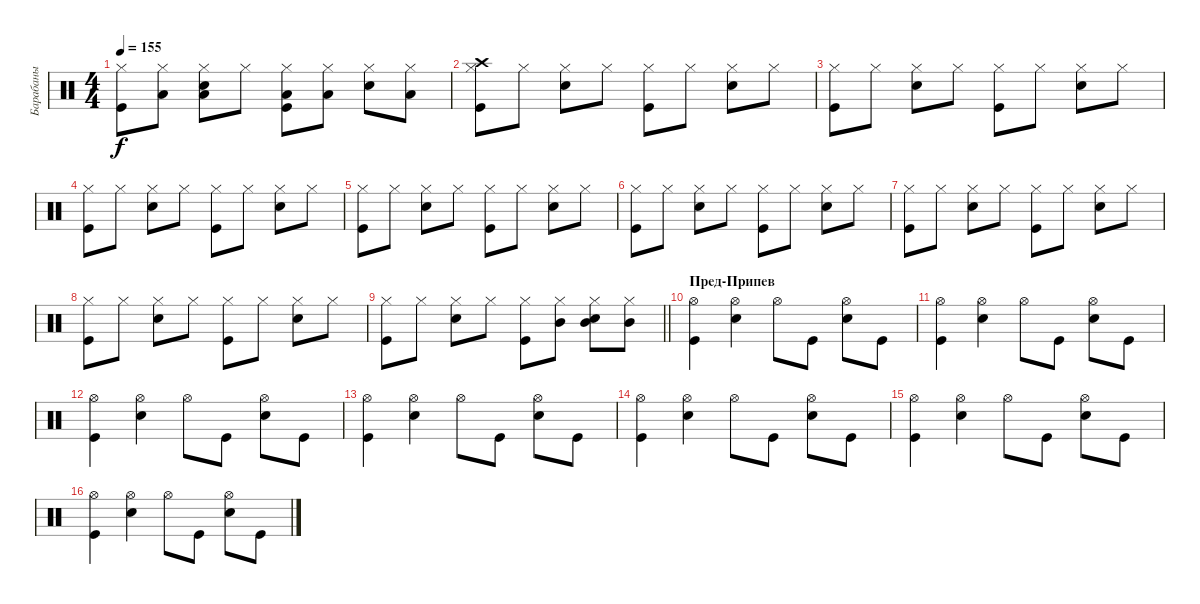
\track ("Барабаны" "Барабаны") {instrument percussion}
\staff {score}
\articulation defaults
\ts (4 4)
\tempo 155
\clef neutral
\ks c
("Kick (hit)" "Hi-Hat (closed)").8{dy f} ("Hi-Hat (closed)" "Low Tom (hit)").8 ("Snare (hit) 2" "Hi-Hat (closed)" "Low Tom (hit)").8 "Hi-Hat (closed)".8 ("Kick (hit)" "Hi-Hat (closed)" "Low Tom (hit)").8 ("Hi-Hat (closed)" "Low Tom (hit)").8 ("Snare (hit) 2" "Hi-Hat (closed)").8 ("Hi-Hat (closed)" "Low Tom (hit)").8 |
("Kick (hit)" "Hi-Hat (closed)" "Crash high (hit)").8 "Hi-Hat (closed)".8 ("Snare (hit) 2" "Hi-Hat (closed)").8 "Hi-Hat (closed)".8 ("Kick (hit)" "Hi-Hat (closed)").8 "Hi-Hat (closed)".8 ("Snare (hit) 2" "Hi-Hat (closed)").8 "Hi-Hat (closed)".8 |
("Kick (hit)" "Hi-Hat (closed)").8 "Hi-Hat (closed)".8 ("Snare (hit) 2" "Hi-Hat (closed)").8 "Hi-Hat (closed)".8 ("Kick (hit)" "Hi-Hat (closed)").8 "Hi-Hat (closed)".8 ("Snare (hit) 2" "Hi-Hat (closed)").8 "Hi-Hat (closed)".8 |
("Kick (hit)" "Hi-Hat (closed)").8 "Hi-Hat (closed)".8 ("Snare (hit) 2" "Hi-Hat (closed)").8 "Hi-Hat (closed)".8 ("Kick (hit)" "Hi-Hat (closed)").8 "Hi-Hat (closed)".8 ("Snare (hit) 2" "Hi-Hat (closed)").8 "Hi-Hat (closed)".8 |
("Kick (hit)" "Hi-Hat (closed)").8 "Hi-Hat (closed)".8 ("Snare (hit) 2" "Hi-Hat (closed)").8 "Hi-Hat (closed)".8 ("Kick (hit)" "Hi-Hat (closed)").8 "Hi-Hat (closed)".8 ("Snare (hit) 2" "Hi-Hat (closed)").8 "Hi-Hat (closed)".8 |
("Kick (hit)" "Hi-Hat (closed)").8 "Hi-Hat (closed)".8 ("Snare (hit) 2" "Hi-Hat (closed)").8 "Hi-Hat (closed)".8 ("Kick (hit)" "Hi-Hat (closed)").8 "Hi-Hat (closed)".8 ("Snare (hit) 2" "Hi-Hat (closed)").8 "Hi-Hat (closed)".8 |
("Kick (hit)" "Hi-Hat (closed)").8 "Hi-Hat (closed)".8 ("Snare (hit) 2" "Hi-Hat (closed)").8 "Hi-Hat (closed)".8 ("Kick (hit)" "Hi-Hat (closed)").8 "Hi-Hat (closed)".8 ("Snare (hit) 2" "Hi-Hat (closed)").8 "Hi-Hat (closed)".8 |
("Kick (hit)" "Hi-Hat (closed)").8 "Hi-Hat (closed)".8 ("Snare (hit) 2" "Hi-Hat (closed)").8 "Hi-Hat (closed)".8 ("Kick (hit)" "Hi-Hat (closed)").8 "Hi-Hat (closed)".8 ("Snare (hit) 2" "Hi-Hat (closed)").8 "Hi-Hat (closed)".8 |
\barLineRight lightlight
("Kick (hit)" "Hi-Hat (closed)").8 "Hi-Hat (closed)".8 ("Snare (hit) 2" "Hi-Hat (closed)").8 "Hi-Hat (closed)".8 ("Kick (hit)" "Hi-Hat (closed)").8 ("Hi-Hat (closed)" "Mid Tom (hit)").8 ("Snare (hit) 2" "Hi-Hat (closed)" "Mid Tom (hit)").8 ("Hi-Hat (closed)" "Mid Tom (hit)").8 |
\section ("" "Пред-Припев")
("Kick (hit)" "Hi-Hat (open)").4 ("Snare (hit) 2" "Hi-Hat (open)").4 "Hi-Hat (open)".8 "Kick (hit)".8 ("Snare (hit) 2" "Hi-Hat (open)").8 "Kick (hit)".8 |
("Kick (hit)" "Hi-Hat (open)").4 ("Snare (hit) 2" "Hi-Hat (open)").4 "Hi-Hat (open)".8 "Kick (hit)".8 ("Snare (hit) 2" "Hi-Hat (open)").8 "Kick (hit)".8 |
("Kick (hit)" "Hi-Hat (open)").4 ("Snare (hit) 2" "Hi-Hat (open)").4 "Hi-Hat (open)".8 "Kick (hit)".8 ("Snare (hit) 2" "Hi-Hat (open)").8 "Kick (hit)".8 |
("Kick (hit)" "Hi-Hat (open)").4 ("Snare (hit) 2" "Hi-Hat (open)").4 "Hi-Hat (open)".8 "Kick (hit)".8 ("Snare (hit) 2" "Hi-Hat (open)").8 "Kick (hit)".8 |
("Kick (hit)" "Hi-Hat (open)").4 ("Snare (hit) 2" "Hi-Hat (open)").4 "Hi-Hat (open)".8 "Kick (hit)".8 ("Snare (hit) 2" "Hi-Hat (open)").8 "Kick (hit)".8 |
("Kick (hit)" "Hi-Hat (open)").4 ("Snare (hit) 2" "Hi-Hat (open)").4 "Hi-Hat (open)".8 "Kick (hit)".8 ("Snare (hit) 2" "Hi-Hat (open)").8 "Kick (hit)".8 |
("Kick (hit)" "Hi-Hat (open)").4 ("Snare (hit) 2" "Hi-Hat (open)").4 "Hi-Hat (open)".8 "Kick (hit)".8 ("Snare (hit) 2" "Hi-Hat (open)").8 "Kick (hit)".8
